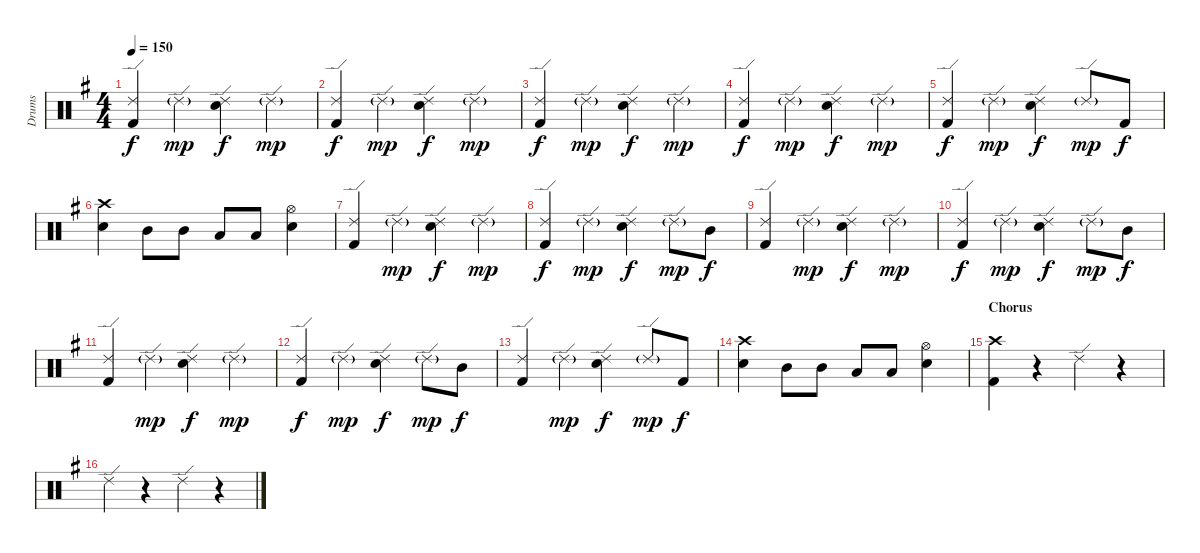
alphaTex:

\track ("Drums" "Drums") {instrument percussion}
\staff {score}
\articulation defaults
\ts (4 4)
\tempo 150
\clef neutral
\ks g
("Ride (edge) 2" "Kick (hit) 2").4{dy f} "Ride (edge) 2"{g}.4{dy mp} ("Ride (edge) 2" "Electric Snare (hit)").4{dy f} "Ride (edge) 2"{g}.4{dy mp} |
("Ride (edge) 2" "Kick (hit) 2").4{dy f} "Ride (edge) 2"{g}.4{dy mp} ("Ride (edge) 2" "Electric Snare (hit)").4{dy f} "Ride (edge) 2"{g}.4{dy mp} |
("Ride (edge) 2" "Kick (hit) 2").4{dy f} "Ride (edge) 2"{g}.4{dy mp} ("Ride (edge) 2" "Electric Snare (hit)").4{dy f} "Ride (edge) 2"{g}.4{dy mp} |
("Ride (edge) 2" "Kick (hit) 2").4{dy f} "Ride (edge) 2"{g}.4{dy mp} ("Ride (edge) 2" "Electric Snare (hit)").4{dy f} "Ride (edge) 2"{g}.4{dy mp} |
("Ride (edge) 2" "Kick (hit) 2").4{dy f} "Ride (edge) 2"{g}.4{dy mp} ("Ride (edge) 2" "Electric Snare (hit)").4{dy f} "Ride (edge) 2"{g}.8{dy mp} "Kick (hit) 2".8{dy f} |
("Crash high (hit)" "Electric Snare (hit)").4 "Mid Tom (hit)".8 "Mid Tom (hit)".8 "Low Tom (hit)".8 "Low Tom (hit)".8 ("Hi-Hat (open)" "Electric Snare (hit)").4 |
("Ride (edge) 2" "Kick (hit) 2").4 "Ride (edge) 2"{g}.4{dy mp} ("Ride (edge) 2" "Electric Snare (hit)").4{dy f} "Ride (edge) 2"{g}.4{dy mp} |
("Ride (edge) 2" "Kick (hit) 2").4{dy f} "Ride (edge) 2"{g}.4{dy mp} ("Ride (edge) 2" "Electric Snare (hit)").4{dy f} "Ride (edge) 2"{g}.8{dy mp} "Mid Tom (hit)".8{dy f} |
("Ride (edge) 2" "Kick (hit) 2").4 "Ride (edge) 2"{g}.4{dy mp} ("Ride (edge) 2" "Electric Snare (hit)").4{dy f} "Ride (edge) 2"{g}.4{dy mp} |
("Ride (edge) 2" "Kick (hit) 2").4{dy f} "Ride (edge) 2"{g}.4{dy mp} ("Ride (edge) 2" "Electric Snare (hit)").4{dy f} "Ride (edge) 2"{g}.8{dy mp} "Mid Tom (hit)".8{dy f} |
("Ride (edge) 2" "Kick (hit) 2").4 "Ride (edge) 2"{g}.4{dy mp} ("Ride (edge) 2" "Electric Snare (hit)").4{dy f} "Ride (edge) 2"{g}.4{dy mp} |
("Ride (edge) 2" "Kick (hit) 2").4{dy f} "Ride (edge) 2"{g}.4{dy mp} ("Ride (edge) 2" "Electric Snare (hit)").4{dy f} "Ride (edge) 2"{g}.8{dy mp} "Mid Tom (hit)".8{dy f} |
("Ride (edge) 2" "Kick (hit) 2").4 "Ride (edge) 2"{g}.4{dy mp} ("Ride (edge) 2" "Electric Snare (hit)").4{dy f} "Ride (edge) 2"{g}.8{dy mp} "Kick (hit) 2".8{dy f} |
("Crash high (hit)" "Electric Snare (hit)").4 "Mid Tom (hit)".8 "Mid Tom (hit)".8 "Low Tom (hit)".8 "Low Tom (hit)".8 ("Hi-Hat (open)" "Electric Snare (hit)").4 |
\section ("" "Chorus")
("Crash high (hit)" "Kick (hit) 2").4 r.4 "Ride (edge) 2".4 r.4 |
"Ride (edge) 2".4 r.4 "Ride (edge) 2".4 r.4
